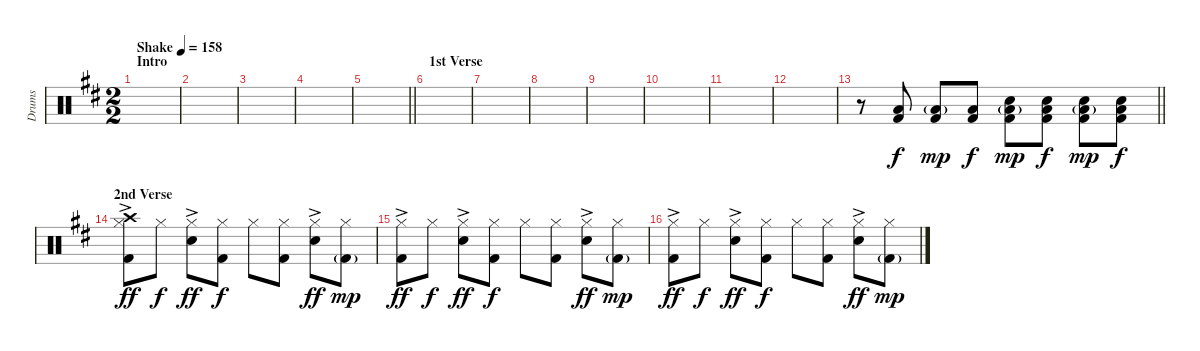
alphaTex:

\track ("Drums" "Drums") {instrument percussion}
\staff {score}
\articulation defaults
\ts (2 2)
\section ("" "Intro")
\tempo (158 "Shake")
\clef neutral
\ks d
|
|
|
|
\barLineRight lightlight
|
\section ("" "1st Verse")
|
|
|
|
|
|
|
\barLineRight lightlight
r.8 ("Low Floor Tom (hit)" "Kick (hit) 2").8 ("Low Floor Tom (hit)"{g} "Kick (hit) 2").8{dy mp} ("Low Floor Tom (hit)" "Kick (hit) 2").8{dy f} ("Snare (hit) 2" "Low Floor Tom (hit)"{g} "Kick (hit) 2").8{dy mp} ("Snare (hit) 2" "Low Floor Tom (hit)" "Kick (hit) 2").8{dy f} ("Snare (hit) 2" "Low Floor Tom (hit)"{g} "Kick (hit) 2").8{dy mp} ("Snare (hit) 2" "Low Floor Tom (hit)" "Kick (hit) 2").8{dy f} |
\section ("" "2nd Verse")
("Hi-Hat (closed)" "Crash high (hit)" "Kick (hit) 2"{ac}).8{dy ff} "Hi-Hat (closed)".8{dy f} ("Hi-Hat (closed)" "Snare (hit) 2"{ac}).8{dy ff} ("Hi-Hat (closed)" "Kick (hit) 2").8{dy f} "Hi-Hat (closed)".8 ("Hi-Hat (closed)" "Kick (hit) 2").8 ("Hi-Hat (closed)" "Snare (hit) 2"{ac}).8{dy ff} ("Hi-Hat (closed)" "Kick (hit) 2"{g}).8{dy mp} |
("Hi-Hat (closed)" "Kick (hit) 2"{ac}).8{dy ff} "Hi-Hat (closed)".8{dy f} ("Hi-Hat (closed)" "Snare (hit) 2"{ac}).8{dy ff} ("Hi-Hat (closed)" "Kick (hit) 2").8{dy f} "Hi-Hat (closed)".8 ("Hi-Hat (closed)" "Kick (hit) 2").8 ("Hi-Hat (closed)" "Snare (hit) 2"{ac}).8{dy ff} ("Hi-Hat (closed)" "Kick (hit) 2"{g}).8{dy mp} |
("Hi-Hat (closed)" "Kick (hit) 2"{ac}).8{dy ff} "Hi-Hat (closed)".8{dy f} ("Hi-Hat (closed)" "Snare (hit) 2"{ac}).8{dy ff} ("Hi-Hat (closed)" "Kick (hit) 2").8{dy f} "Hi-Hat (closed)".8 ("Hi-Hat (closed)" "Kick (hit) 2").8 ("Hi-Hat (closed)" "Snare (hit) 2"{ac}).8{dy ff} ("Hi-Hat (closed)" "Kick (hit) 2"{g}).8{dy mp}
